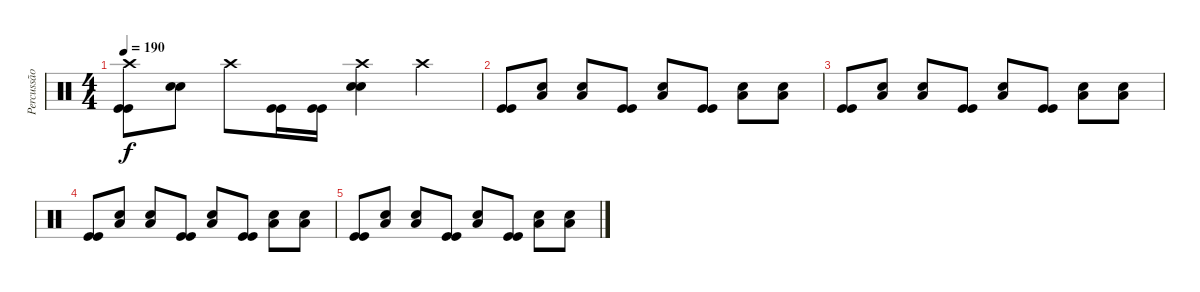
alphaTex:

\track ("Percussão" "Percussão") {instrument percussion}
\staff {score}
\articulation defaults
\ts (4 4)
\tempo 190
\clef neutral
\ks c
("Crash high (hit)" "Kick (hit)" "Kick (hit)").8{dy f} ("Snare (hit) 2" "Snare (hit) 2").8 "Crash high (hit)".8 ("Kick (hit)" "Kick (hit)").16 ("Kick (hit)" "Kick (hit)").16 ("Crash high (hit)" "Snare (hit) 2" "Snare (hit) 2").4 "Crash high (hit)".4 |
("Kick (hit)" "Kick (hit)").8 ("Snare (hit) 2" "Low Floor Tom (hit)").8 ("Snare (hit) 2" "Low Floor Tom (hit)").8 ("Kick (hit)" "Kick (hit)").8 ("Snare (hit) 2" "Low Floor Tom (hit)").8 ("Kick (hit)" "Kick (hit)").8 ("Snare (hit) 2" "Low Floor Tom (hit)").8 ("Snare (hit) 2" "Low Floor Tom (hit)").8 |
("Kick (hit)" "Kick (hit)").8 ("Snare (hit) 2" "Low Floor Tom (hit)").8 ("Snare (hit) 2" "Low Floor Tom (hit)").8 ("Kick (hit)" "Kick (hit)").8 ("Snare (hit) 2" "Low Floor Tom (hit)").8 ("Kick (hit)" "Kick (hit)").8 ("Snare (hit) 2" "Low Floor Tom (hit)").8 ("Snare (hit) 2" "Low Floor Tom (hit)").8 |
("Kick (hit)" "Kick (hit)").8 ("Snare (hit) 2" "Low Floor Tom (hit)").8 ("Snare (hit) 2" "Low Floor Tom (hit)").8 ("Kick (hit)" "Kick (hit)").8 ("Snare (hit) 2" "Low Floor Tom (hit)").8 ("Kick (hit)" "Kick (hit)").8 ("Snare (hit) 2" "Low Floor Tom (hit)").8 ("Snare (hit) 2" "Low Floor Tom (hit)").8 |
("Kick (hit)" "Kick (hit)").8 ("Snare (hit) 2" "Low Floor Tom (hit)").8 ("Snare (hit) 2" "Low Floor Tom (hit)").8 ("Kick (hit)" "Kick (hit)").8 ("Snare (hit) 2" "Low Floor Tom (hit)").8 ("Kick (hit)" "Kick (hit)").8 ("Snare (hit) 2" "Low Floor Tom (hit)").8 ("Snare (hit) 2" "Low Floor Tom (hit)").8
